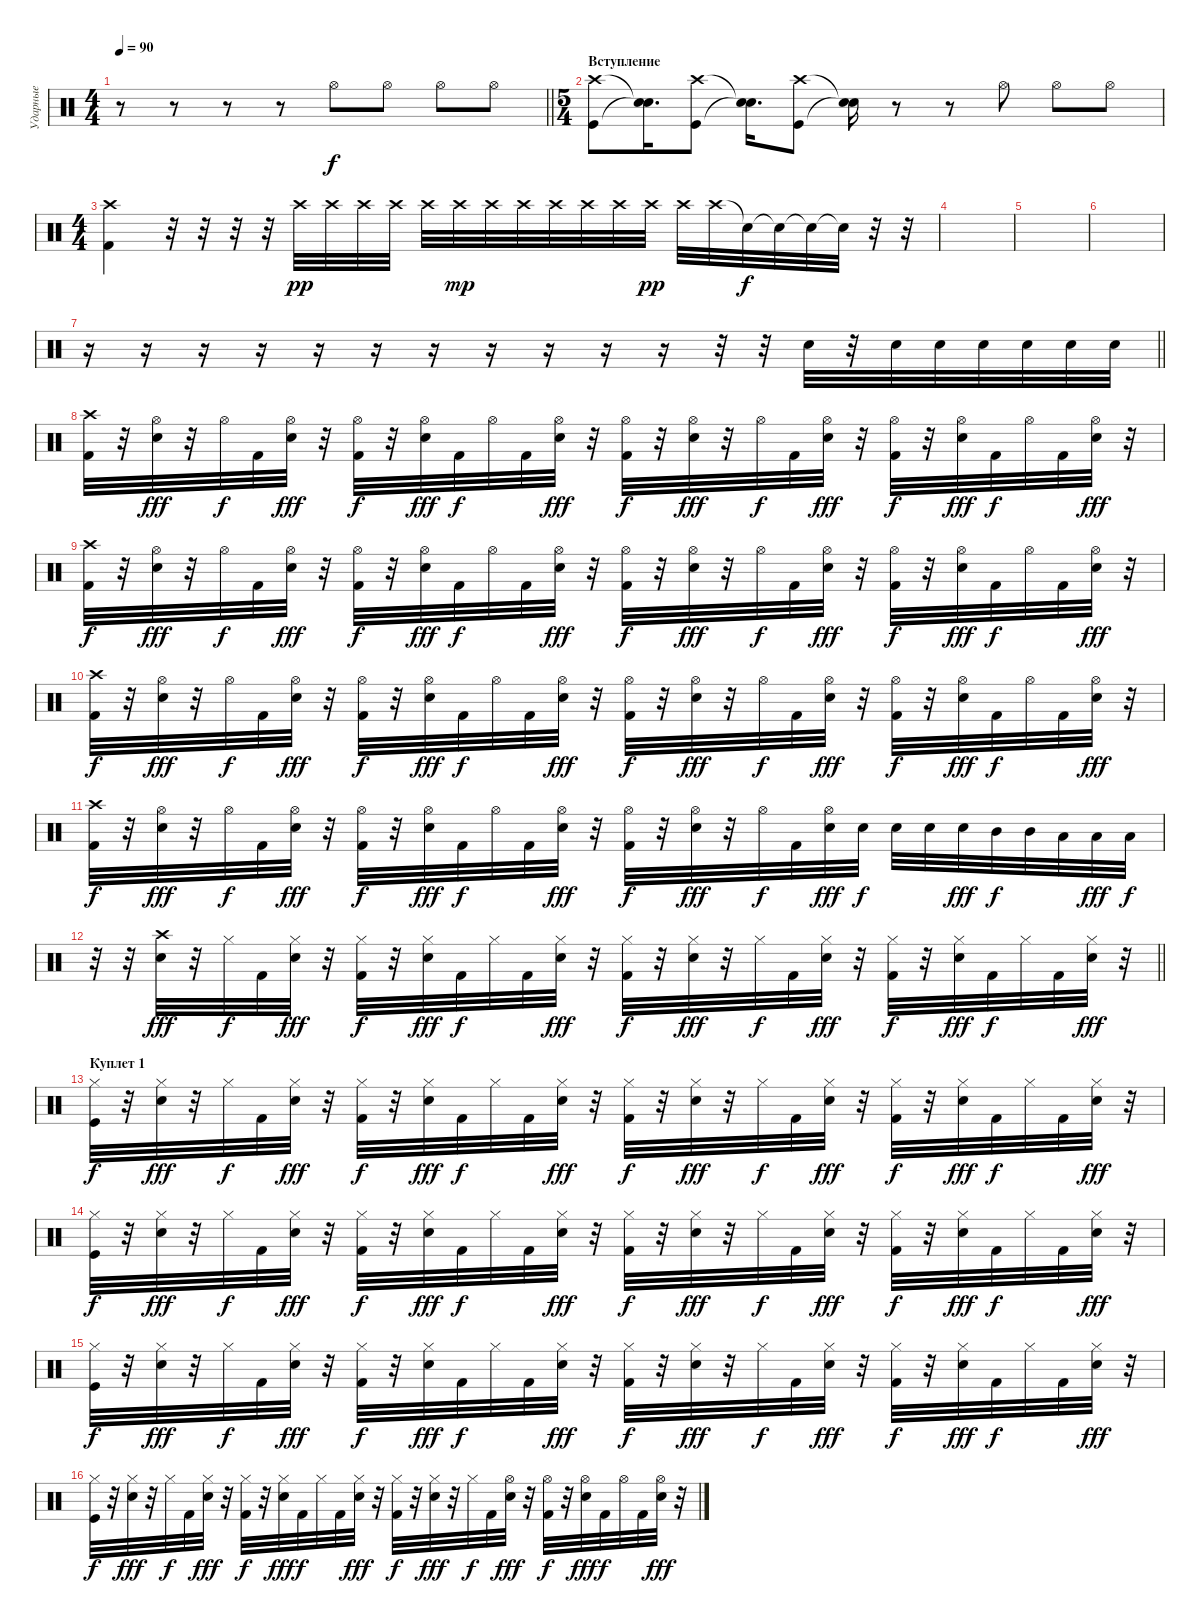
\track ("Ударные" "Ударные") {instrument percussion}
\staff {score}
\articulation defaults
\ts (4 4)
\tempo 90
\clef neutral
\barLineRight lightlight
\ks c
r.8{dy f} r.8 r.8 r.8 "Hi-Hat (open)".8 "Hi-Hat (open)".8 "Hi-Hat (open)".8 "Hi-Hat (open)".8 |
\ts (5 4)
\section ("" "Вступление")
("Kick (hit)" "Crash high (hit)").8 ("Snare (hit)"{t} "Snare (hit)"{t}).16{d} ("Kick (hit)" "Crash high (hit)").8 ("Snare (hit)"{t} "Snare (hit)"{t}).16{d} ("Kick (hit)" "Crash high (hit)").8 ("Snare (hit)"{t} "Snare (hit)"{t}).16 r.8 r.8 "Hi-Hat (open)".8 "Hi-Hat (open)".8 "Hi-Hat (open)".8 |
\ts (4 4)
("Kick (hit) 2" "Crash high (hit)").4 r.32 r.32 r.32 r.32 "Crash high (hit)".32{dy pp} "Crash high (hit)".32 "Crash high (hit)".32 "Crash high (hit)".32 "Crash high (hit)".32 "Crash high (hit)".32{dy mp} "Crash high (hit)".32 "Crash high (hit)".32 "Crash high (hit)".32 "Crash high (hit)".32 "Crash high (hit)".32 "Crash high (hit)".32{dy pp} "Crash high (hit)".32 "Crash high (hit)".32 "Snare (hit)"{t}.32{dy f} "Snare (hit)"{t}.32 "Snare (hit)"{t}.32 "Snare (hit)"{t}.32 r.32 r.32 |
|
|
|
\barLineRight lightlight
r.16 r.16 r.16 r.16 r.16 r.16 r.16 r.16 r.16 r.16 r.16 r.32 r.32 "Snare (hit) 2".32 r.32 "Snare (hit) 2".32 "Snare (hit) 2".32 "Snare (hit) 2".32 "Snare (hit) 2".32 "Snare (hit) 2".32 "Snare (hit) 2".32 |
\section ("" "")
("Crash high (hit)" "Kick (hit) 2").32 r.32 ("Hi-Hat (open)" "Snare (hit) 2").32{dy fff} r.32 "Hi-Hat (open)".32{dy f} "Kick (hit) 2".32 ("Hi-Hat (open)" "Snare (hit) 2").32{dy fff} r.32 ("Hi-Hat (open)" "Kick (hit) 2").32{dy f} r.32 ("Hi-Hat (open)" "Snare (hit) 2").32{dy fff} "Kick (hit) 2".32{dy f} "Hi-Hat (open)".32 "Kick (hit) 2".32 ("Hi-Hat (open)" "Snare (hit) 2").32{dy fff} r.32 ("Hi-Hat (open)" "Kick (hit) 2").32{dy f} r.32 ("Hi-Hat (open)" "Snare (hit) 2").32{dy fff} r.32 "Hi-Hat (open)".32{dy f} "Kick (hit) 2".32 ("Hi-Hat (open)" "Snare (hit) 2").32{dy fff} r.32 ("Hi-Hat (open)" "Kick (hit) 2").32{dy f} r.32 ("Hi-Hat (open)" "Snare (hit) 2").32{dy fff} "Kick (hit) 2".32{dy f} "Hi-Hat (open)".32 "Kick (hit) 2".32 ("Hi-Hat (open)" "Snare (hit) 2").32{dy fff} r.32 |
("Crash high (hit)" "Kick (hit) 2").32{dy f} r.32 ("Hi-Hat (open)" "Snare (hit) 2").32{dy fff} r.32 "Hi-Hat (open)".32{dy f} "Kick (hit) 2".32 ("Hi-Hat (open)" "Snare (hit) 2").32{dy fff} r.32 ("Hi-Hat (open)" "Kick (hit) 2").32{dy f} r.32 ("Hi-Hat (open)" "Snare (hit) 2").32{dy fff} "Kick (hit) 2".32{dy f} "Hi-Hat (open)".32 "Kick (hit) 2".32 ("Hi-Hat (open)" "Snare (hit) 2").32{dy fff} r.32 ("Hi-Hat (open)" "Kick (hit) 2").32{dy f} r.32 ("Hi-Hat (open)" "Snare (hit) 2").32{dy fff} r.32 "Hi-Hat (open)".32{dy f} "Kick (hit) 2".32 ("Hi-Hat (open)" "Snare (hit) 2").32{dy fff} r.32 ("Hi-Hat (open)" "Kick (hit) 2").32{dy f} r.32 ("Hi-Hat (open)" "Snare (hit) 2").32{dy fff} "Kick (hit) 2".32{dy f} "Hi-Hat (open)".32 "Kick (hit) 2".32 ("Hi-Hat (open)" "Snare (hit) 2").32{dy fff} r.32 |
("Crash high (hit)" "Kick (hit) 2").32{dy f} r.32 ("Hi-Hat (open)" "Snare (hit) 2").32{dy fff} r.32 "Hi-Hat (open)".32{dy f} "Kick (hit) 2".32 ("Hi-Hat (open)" "Snare (hit) 2").32{dy fff} r.32 ("Hi-Hat (open)" "Kick (hit) 2").32{dy f} r.32 ("Hi-Hat (open)" "Snare (hit) 2").32{dy fff} "Kick (hit) 2".32{dy f} "Hi-Hat (open)".32 "Kick (hit) 2".32 ("Hi-Hat (open)" "Snare (hit) 2").32{dy fff} r.32 ("Hi-Hat (open)" "Kick (hit) 2").32{dy f} r.32 ("Hi-Hat (open)" "Snare (hit) 2").32{dy fff} r.32 "Hi-Hat (open)".32{dy f} "Kick (hit) 2".32 ("Hi-Hat (open)" "Snare (hit) 2").32{dy fff} r.32 ("Hi-Hat (open)" "Kick (hit) 2").32{dy f} r.32 ("Hi-Hat (open)" "Snare (hit) 2").32{dy fff} "Kick (hit) 2".32{dy f} "Hi-Hat (open)".32 "Kick (hit) 2".32 ("Hi-Hat (open)" "Snare (hit) 2").32{dy fff} r.32 |
("Crash high (hit)" "Kick (hit) 2").32{dy f} r.32 ("Hi-Hat (open)" "Snare (hit) 2").32{dy fff} r.32 "Hi-Hat (open)".32{dy f} "Kick (hit) 2".32 ("Hi-Hat (open)" "Snare (hit) 2").32{dy fff} r.32 ("Hi-Hat (open)" "Kick (hit) 2").32{dy f} r.32 ("Hi-Hat (open)" "Snare (hit) 2").32{dy fff} "Kick (hit) 2".32{dy f} "Hi-Hat (open)".32 "Kick (hit) 2".32 ("Hi-Hat (open)" "Snare (hit) 2").32{dy fff} r.32 ("Hi-Hat (open)" "Kick (hit) 2").32{dy f} r.32 ("Hi-Hat (open)" "Snare (hit) 2").32{dy fff} r.32 "Hi-Hat (open)".32{dy f} "Kick (hit) 2".32 ("Hi-Hat (open)" "Snare (hit) 2").32{dy fff} "Snare (hit) 2".32{dy f} "Snare (hit) 2".32 "Snare (hit) 2".32 "Snare (hit) 2".32{dy fff} "Mid Tom (hit)".32{dy f} "Mid Tom (hit)".32 "Low Tom (hit)".32 "Low Tom (hit)".32{dy fff} "Low Tom (hit)".32{dy f} |
\barLineRight lightlight
r.32 r.32 ("Crash high (hit)" "Snare (hit) 2").32{dy fff} r.32 "Hi-Hat (closed)".32{dy f} "Kick (hit) 2".32 ("Hi-Hat (closed)" "Snare (hit) 2").32{dy fff} r.32 ("Hi-Hat (closed)" "Kick (hit) 2").32{dy f} r.32 ("Hi-Hat (closed)" "Snare (hit) 2").32{dy fff} "Kick (hit) 2".32{dy f} "Hi-Hat (closed)".32 "Kick (hit) 2".32 ("Hi-Hat (closed)" "Snare (hit) 2").32{dy fff} r.32 ("Hi-Hat (closed)" "Kick (hit) 2").32{dy f} r.32 ("Hi-Hat (closed)" "Snare (hit) 2").32{dy fff} r.32 "Hi-Hat (closed)".32{dy f} "Kick (hit) 2".32 ("Hi-Hat (closed)" "Snare (hit) 2").32{dy fff} r.32 ("Hi-Hat (closed)" "Kick (hit) 2").32{dy f} r.32 ("Hi-Hat (closed)" "Snare (hit) 2").32{dy fff} "Kick (hit) 2".32{dy f} "Hi-Hat (closed)".32 "Kick (hit) 2".32 ("Hi-Hat (closed)" "Snare (hit) 2").32{dy fff} r.32 |
\section ("" "Куплет 1")
("Hi-Hat (closed)" "Kick (hit)").32{dy f} r.32 ("Hi-Hat (closed)" "Snare (hit) 2").32{dy fff} r.32 "Hi-Hat (closed)".32{dy f} "Kick (hit) 2".32 ("Hi-Hat (closed)" "Snare (hit) 2").32{dy fff} r.32 ("Hi-Hat (closed)" "Kick (hit) 2").32{dy f} r.32 ("Hi-Hat (closed)" "Snare (hit) 2").32{dy fff} "Kick (hit) 2".32{dy f} "Hi-Hat (closed)".32 "Kick (hit) 2".32 ("Hi-Hat (closed)" "Snare (hit) 2").32{dy fff} r.32 ("Hi-Hat (closed)" "Kick (hit) 2").32{dy f} r.32 ("Hi-Hat (closed)" "Snare (hit) 2").32{dy fff} r.32 "Hi-Hat (closed)".32{dy f} "Kick (hit) 2".32 ("Hi-Hat (closed)" "Snare (hit) 2").32{dy fff} r.32 ("Hi-Hat (closed)" "Kick (hit) 2").32{dy f} r.32 ("Hi-Hat (closed)" "Snare (hit) 2").32{dy fff} "Kick (hit) 2".32{dy f} "Hi-Hat (closed)".32 "Kick (hit) 2".32 ("Hi-Hat (closed)" "Snare (hit) 2").32{dy fff} r.32 |
("Hi-Hat (closed)" "Kick (hit)").32{dy f} r.32 ("Hi-Hat (closed)" "Snare (hit) 2").32{dy fff} r.32 "Hi-Hat (closed)".32{dy f} "Kick (hit) 2".32 ("Hi-Hat (closed)" "Snare (hit) 2").32{dy fff} r.32 ("Hi-Hat (closed)" "Kick (hit) 2").32{dy f} r.32 ("Hi-Hat (closed)" "Snare (hit) 2").32{dy fff} "Kick (hit) 2".32{dy f} "Hi-Hat (closed)".32 "Kick (hit) 2".32 ("Hi-Hat (closed)" "Snare (hit) 2").32{dy fff} r.32 ("Hi-Hat (closed)" "Kick (hit) 2").32{dy f} r.32 ("Hi-Hat (closed)" "Snare (hit) 2").32{dy fff} r.32 "Hi-Hat (closed)".32{dy f} "Kick (hit) 2".32 ("Hi-Hat (closed)" "Snare (hit) 2").32{dy fff} r.32 ("Hi-Hat (closed)" "Kick (hit) 2").32{dy f} r.32 ("Hi-Hat (closed)" "Snare (hit) 2").32{dy fff} "Kick (hit) 2".32{dy f} "Hi-Hat (closed)".32 "Kick (hit) 2".32 ("Hi-Hat (closed)" "Snare (hit) 2").32{dy fff} r.32 |
("Hi-Hat (closed)" "Kick (hit)").32{dy f} r.32 ("Hi-Hat (closed)" "Snare (hit) 2").32{dy fff} r.32 "Hi-Hat (closed)".32{dy f} "Kick (hit) 2".32 ("Hi-Hat (closed)" "Snare (hit) 2").32{dy fff} r.32 ("Hi-Hat (closed)" "Kick (hit) 2").32{dy f} r.32 ("Hi-Hat (closed)" "Snare (hit) 2").32{dy fff} "Kick (hit) 2".32{dy f} "Hi-Hat (closed)".32 "Kick (hit) 2".32 ("Hi-Hat (closed)" "Snare (hit) 2").32{dy fff} r.32 ("Hi-Hat (closed)" "Kick (hit) 2").32{dy f} r.32 ("Hi-Hat (closed)" "Snare (hit) 2").32{dy fff} r.32 "Hi-Hat (closed)".32{dy f} "Kick (hit) 2".32 ("Hi-Hat (closed)" "Snare (hit) 2").32{dy fff} r.32 ("Hi-Hat (closed)" "Kick (hit) 2").32{dy f} r.32 ("Hi-Hat (closed)" "Snare (hit) 2").32{dy fff} "Kick (hit) 2".32{dy f} "Hi-Hat (closed)".32 "Kick (hit) 2".32 ("Hi-Hat (closed)" "Snare (hit) 2").32{dy fff} r.32 |
("Hi-Hat (closed)" "Kick (hit)").32{dy f} r.32 ("Hi-Hat (closed)" "Snare (hit) 2").32{dy fff} r.32 "Hi-Hat (closed)".32{dy f} "Kick (hit) 2".32 ("Hi-Hat (closed)" "Snare (hit) 2").32{dy fff} r.32 ("Hi-Hat (closed)" "Kick (hit) 2").32{dy f} r.32 ("Hi-Hat (closed)" "Snare (hit) 2").32{dy fff} "Kick (hit) 2".32{dy f} "Hi-Hat (closed)".32 "Kick (hit) 2".32 ("Hi-Hat (closed)" "Snare (hit) 2").32{dy fff} r.32 ("Hi-Hat (closed)" "Kick (hit) 2").32{dy f} r.32 ("Hi-Hat (closed)" "Snare (hit) 2").32{dy fff} r.32 "Hi-Hat (closed)".32{dy f} "Kick (hit) 2".32 ("Hi-Hat (open)" "Snare (hit) 2").32{dy fff} r.32 ("Hi-Hat (open)" "Kick (hit) 2").32{dy f} r.32 ("Hi-Hat (open)" "Snare (hit) 2").32{dy fff} "Kick (hit) 2".32{dy f} "Hi-Hat (open)".32 "Kick (hit) 2".32 ("Hi-Hat (open)" "Snare (hit) 2").32{dy fff} r.32
